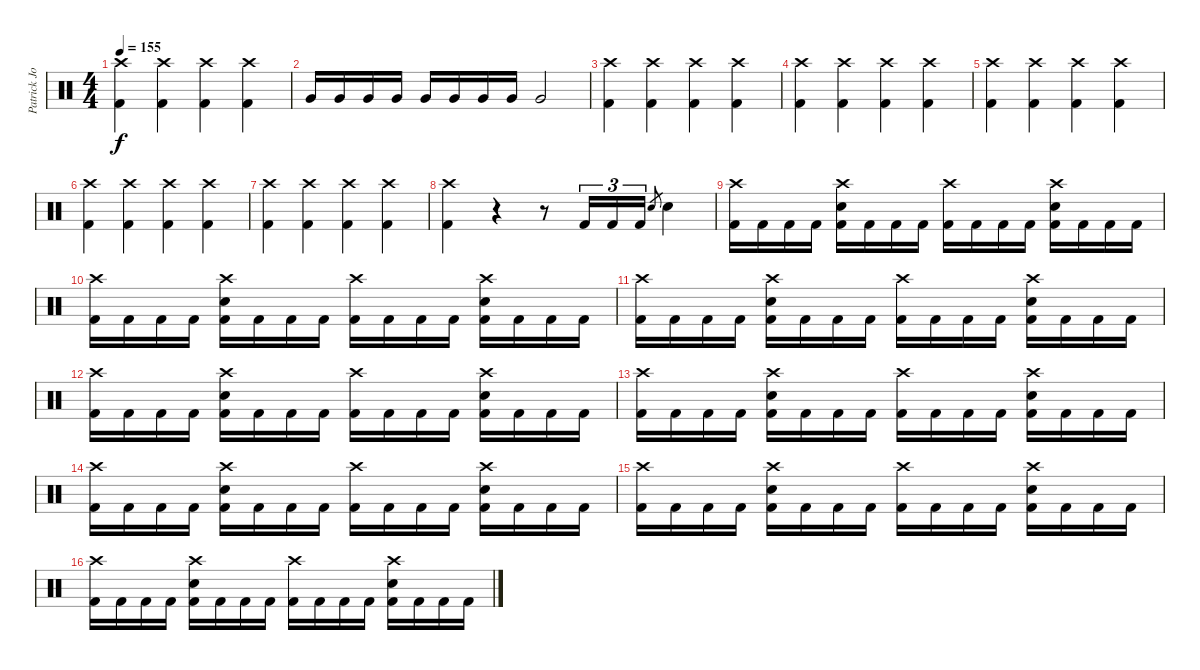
\track ("Patrick Johansson" "Patrick Jo") {instrument percussion}
\staff {score}
\articulation defaults
\ts (4 4)
\tempo 155
\clef neutral
\ks c
("Crash high (hit)" "Kick (hit) 2").4{dy f} ("Crash high (hit)" "Kick (hit) 2").4 ("Crash high (hit)" "Kick (hit) 2").4 ("Crash high (hit)" "Kick (hit) 2").4 |
"Very Low Tom (hit)".16 "Very Low Tom (hit)".16 "Very Low Tom (hit)".16 "Very Low Tom (hit)".16 "Very Low Tom (hit)".16 "Very Low Tom (hit)".16 "Very Low Tom (hit)".16 "Very Low Tom (hit)".16 "Very Low Tom (hit)".2 |
("Crash high (hit)" "Kick (hit) 2").4 ("Crash high (hit)" "Kick (hit) 2").4 ("Crash high (hit)" "Kick (hit) 2").4 ("Crash high (hit)" "Kick (hit) 2").4 |
("Crash high (hit)" "Kick (hit) 2").4 ("Crash high (hit)" "Kick (hit) 2").4 ("Crash high (hit)" "Kick (hit) 2").4 ("Crash high (hit)" "Kick (hit) 2").4 |
("Crash high (hit)" "Kick (hit) 2").4 ("Crash high (hit)" "Kick (hit) 2").4 ("Crash high (hit)" "Kick (hit) 2").4 ("Crash high (hit)" "Kick (hit) 2").4 |
("Crash high (hit)" "Kick (hit) 2").4 ("Crash high (hit)" "Kick (hit) 2").4 ("Crash high (hit)" "Kick (hit) 2").4 ("Crash high (hit)" "Kick (hit) 2").4 |
("Crash high (hit)" "Kick (hit) 2").4 ("Crash high (hit)" "Kick (hit) 2").4 ("Crash high (hit)" "Kick (hit) 2").4 ("Crash high (hit)" "Kick (hit) 2").4 |
("Crash high (hit)" "Kick (hit) 2").4 r.4 r.8 "Kick (hit) 2".16{tu (3 2)} "Kick (hit) 2".16{tu (3 2)} "Kick (hit) 2".16{tu (3 2)} "Electric Snare (hit)".8{gr} "Electric Snare (hit)".4 |
("Crash high (hit)" "Kick (hit) 2").16 "Kick (hit) 2".16 "Kick (hit) 2".16 "Kick (hit) 2".16 ("Crash high (hit)" "Electric Snare (hit)" "Kick (hit) 2").16 "Kick (hit) 2".16 "Kick (hit) 2".16 "Kick (hit) 2".16 ("Crash high (hit)" "Kick (hit) 2").16 "Kick (hit) 2".16 "Kick (hit) 2".16 "Kick (hit) 2".16 ("Crash high (hit)" "Electric Snare (hit)" "Kick (hit) 2").16 "Kick (hit) 2".16 "Kick (hit) 2".16 "Kick (hit) 2".16 |
("Crash high (hit)" "Kick (hit) 2").16 "Kick (hit) 2".16 "Kick (hit) 2".16 "Kick (hit) 2".16 ("Crash high (hit)" "Electric Snare (hit)" "Kick (hit) 2").16 "Kick (hit) 2".16 "Kick (hit) 2".16 "Kick (hit) 2".16 ("Crash high (hit)" "Kick (hit) 2").16 "Kick (hit) 2".16 "Kick (hit) 2".16 "Kick (hit) 2".16 ("Crash high (hit)" "Electric Snare (hit)" "Kick (hit) 2").16 "Kick (hit) 2".16 "Kick (hit) 2".16 "Kick (hit) 2".16 |
("Crash high (hit)" "Kick (hit) 2").16 "Kick (hit) 2".16 "Kick (hit) 2".16 "Kick (hit) 2".16 ("Crash high (hit)" "Electric Snare (hit)" "Kick (hit) 2").16 "Kick (hit) 2".16 "Kick (hit) 2".16 "Kick (hit) 2".16 ("Crash high (hit)" "Kick (hit) 2").16 "Kick (hit) 2".16 "Kick (hit) 2".16 "Kick (hit) 2".16 ("Crash high (hit)" "Electric Snare (hit)" "Kick (hit) 2").16 "Kick (hit) 2".16 "Kick (hit) 2".16 "Kick (hit) 2".16 |
("Crash high (hit)" "Kick (hit) 2").16 "Kick (hit) 2".16 "Kick (hit) 2".16 "Kick (hit) 2".16 ("Crash high (hit)" "Electric Snare (hit)" "Kick (hit) 2").16 "Kick (hit) 2".16 "Kick (hit) 2".16 "Kick (hit) 2".16 ("Crash high (hit)" "Kick (hit) 2").16 "Kick (hit) 2".16 "Kick (hit) 2".16 "Kick (hit) 2".16 ("Crash high (hit)" "Electric Snare (hit)" "Kick (hit) 2").16 "Kick (hit) 2".16 "Kick (hit) 2".16 "Kick (hit) 2".16 |
("Crash high (hit)" "Kick (hit) 2").16 "Kick (hit) 2".16 "Kick (hit) 2".16 "Kick (hit) 2".16 ("Crash high (hit)" "Electric Snare (hit)" "Kick (hit) 2").16 "Kick (hit) 2".16 "Kick (hit) 2".16 "Kick (hit) 2".16 ("Crash high (hit)" "Kick (hit) 2").16 "Kick (hit) 2".16 "Kick (hit) 2".16 "Kick (hit) 2".16 ("Crash high (hit)" "Electric Snare (hit)" "Kick (hit) 2").16 "Kick (hit) 2".16 "Kick (hit) 2".16 "Kick (hit) 2".16 |
("Crash high (hit)" "Kick (hit) 2").16 "Kick (hit) 2".16 "Kick (hit) 2".16 "Kick (hit) 2".16 ("Crash high (hit)" "Electric Snare (hit)" "Kick (hit) 2").16 "Kick (hit) 2".16 "Kick (hit) 2".16 "Kick (hit) 2".16 ("Crash high (hit)" "Kick (hit) 2").16 "Kick (hit) 2".16 "Kick (hit) 2".16 "Kick (hit) 2".16 ("Crash high (hit)" "Electric Snare (hit)" "Kick (hit) 2").16 "Kick (hit) 2".16 "Kick (hit) 2".16 "Kick (hit) 2".16 |
("Crash high (hit)" "Kick (hit) 2").16 "Kick (hit) 2".16 "Kick (hit) 2".16 "Kick (hit) 2".16 ("Crash high (hit)" "Electric Snare (hit)" "Kick (hit) 2").16 "Kick (hit) 2".16 "Kick (hit) 2".16 "Kick (hit) 2".16 ("Crash high (hit)" "Kick (hit) 2").16 "Kick (hit) 2".16 "Kick (hit) 2".16 "Kick (hit) 2".16 ("Crash high (hit)" "Electric Snare (hit)" "Kick (hit) 2").16 "Kick (hit) 2".16 "Kick (hit) 2".16 "Kick (hit) 2".16 |
("Crash high (hit)" "Kick (hit) 2").16 "Kick (hit) 2".16 "Kick (hit) 2".16 "Kick (hit) 2".16 ("Crash high (hit)" "Electric Snare (hit)" "Kick (hit) 2").16 "Kick (hit) 2".16 "Kick (hit) 2".16 "Kick (hit) 2".16 ("Crash high (hit)" "Kick (hit) 2").16 "Kick (hit) 2".16 "Kick (hit) 2".16 "Kick (hit) 2".16 ("Crash high (hit)" "Electric Snare (hit)" "Kick (hit) 2").16 "Kick (hit) 2".16 "Kick (hit) 2".16 "Kick (hit) 2".16
